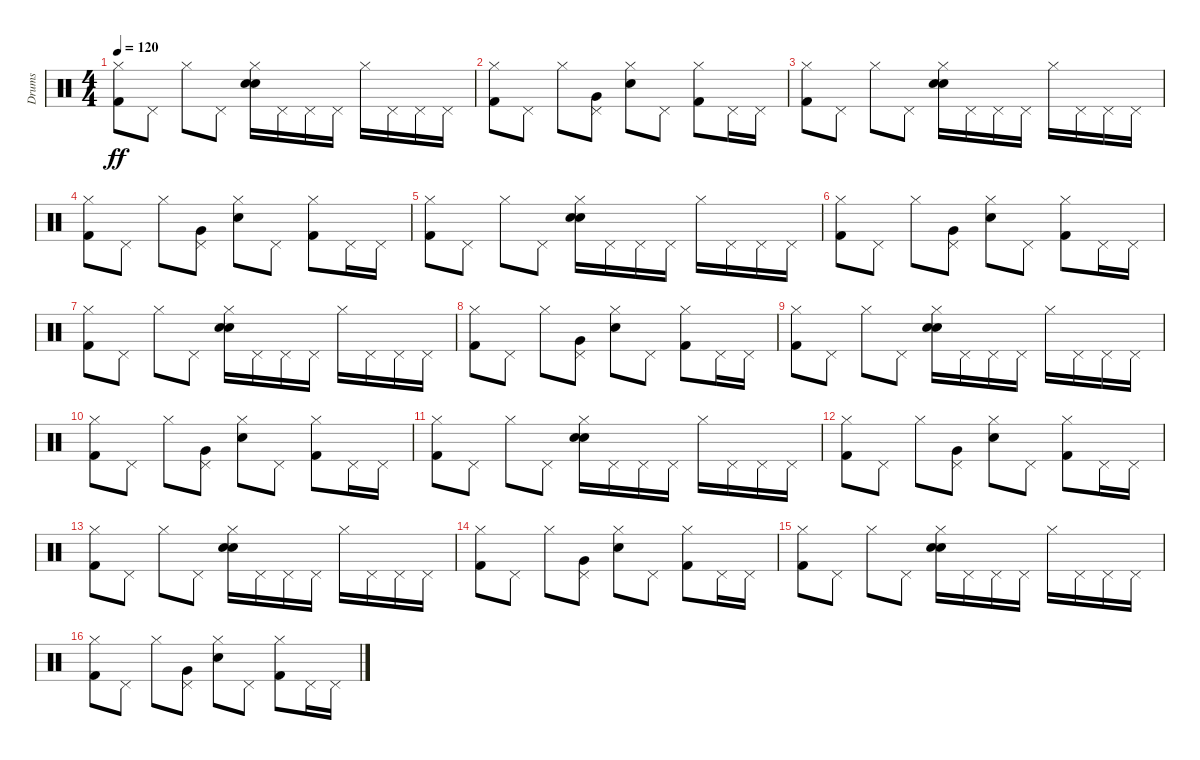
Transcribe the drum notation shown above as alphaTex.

\track ("Drums" "Drums") {instrument percussion}
\staff {score}
\articulation defaults
\ts (4 4)
\tempo 120
\clef neutral
\ks c
("Kick (hit) 2" "Hi-Hat (closed)").8{dy ff} "Pedal Hi-Hat (hit)".8 "Hi-Hat (closed)".8 "Pedal Hi-Hat (hit)".8 ("Electric Snare (hit)" "Electric Snare (hit)" "Hi-Hat (closed)").16 "Pedal Hi-Hat (hit)".16 "Pedal Hi-Hat (hit)".16 "Pedal Hi-Hat (hit)".16 "Hi-Hat (closed)".16 "Pedal Hi-Hat (hit)".16 "Pedal Hi-Hat (hit)".16 "Pedal Hi-Hat (hit)".16 |
("Kick (hit) 2" "Hi-Hat (closed)").8 "Pedal Hi-Hat (hit)".8 "Hi-Hat (closed)".8 ("Very Low Tom (hit)" "Pedal Hi-Hat (hit)").8 ("Electric Snare (hit)" "Hi-Hat (closed)").8 "Pedal Hi-Hat (hit)".8 ("Kick (hit) 2" "Hi-Hat (closed)").8 "Pedal Hi-Hat (hit)".16 "Pedal Hi-Hat (hit)".16 |
("Kick (hit) 2" "Hi-Hat (closed)").8 "Pedal Hi-Hat (hit)".8 "Hi-Hat (closed)".8 "Pedal Hi-Hat (hit)".8 ("Electric Snare (hit)" "Electric Snare (hit)" "Hi-Hat (closed)").16 "Pedal Hi-Hat (hit)".16 "Pedal Hi-Hat (hit)".16 "Pedal Hi-Hat (hit)".16 "Hi-Hat (closed)".16 "Pedal Hi-Hat (hit)".16 "Pedal Hi-Hat (hit)".16 "Pedal Hi-Hat (hit)".16 |
("Kick (hit) 2" "Hi-Hat (closed)").8 "Pedal Hi-Hat (hit)".8 "Hi-Hat (closed)".8 ("Very Low Tom (hit)" "Pedal Hi-Hat (hit)").8 ("Electric Snare (hit)" "Hi-Hat (closed)").8 "Pedal Hi-Hat (hit)".8 ("Kick (hit) 2" "Hi-Hat (closed)").8 "Pedal Hi-Hat (hit)".16 "Pedal Hi-Hat (hit)".16 |
("Kick (hit) 2" "Hi-Hat (closed)").8 "Pedal Hi-Hat (hit)".8 "Hi-Hat (closed)".8 "Pedal Hi-Hat (hit)".8 ("Electric Snare (hit)" "Electric Snare (hit)" "Hi-Hat (closed)").16 "Pedal Hi-Hat (hit)".16 "Pedal Hi-Hat (hit)".16 "Pedal Hi-Hat (hit)".16 "Hi-Hat (closed)".16 "Pedal Hi-Hat (hit)".16 "Pedal Hi-Hat (hit)".16 "Pedal Hi-Hat (hit)".16 |
("Kick (hit) 2" "Hi-Hat (closed)").8 "Pedal Hi-Hat (hit)".8 "Hi-Hat (closed)".8 ("Very Low Tom (hit)" "Pedal Hi-Hat (hit)").8 ("Electric Snare (hit)" "Hi-Hat (closed)").8 "Pedal Hi-Hat (hit)".8 ("Kick (hit) 2" "Hi-Hat (closed)").8 "Pedal Hi-Hat (hit)".16 "Pedal Hi-Hat (hit)".16 |
("Kick (hit) 2" "Hi-Hat (closed)").8 "Pedal Hi-Hat (hit)".8 "Hi-Hat (closed)".8 "Pedal Hi-Hat (hit)".8 ("Electric Snare (hit)" "Electric Snare (hit)" "Hi-Hat (closed)").16 "Pedal Hi-Hat (hit)".16 "Pedal Hi-Hat (hit)".16 "Pedal Hi-Hat (hit)".16 "Hi-Hat (closed)".16 "Pedal Hi-Hat (hit)".16 "Pedal Hi-Hat (hit)".16 "Pedal Hi-Hat (hit)".16 |
("Kick (hit) 2" "Hi-Hat (closed)").8 "Pedal Hi-Hat (hit)".8 "Hi-Hat (closed)".8 ("Very Low Tom (hit)" "Pedal Hi-Hat (hit)").8 ("Electric Snare (hit)" "Hi-Hat (closed)").8 "Pedal Hi-Hat (hit)".8 ("Kick (hit) 2" "Hi-Hat (closed)").8 "Pedal Hi-Hat (hit)".16 "Pedal Hi-Hat (hit)".16 |
("Kick (hit) 2" "Hi-Hat (closed)").8 "Pedal Hi-Hat (hit)".8 "Hi-Hat (closed)".8 "Pedal Hi-Hat (hit)".8 ("Electric Snare (hit)" "Electric Snare (hit)" "Hi-Hat (closed)").16 "Pedal Hi-Hat (hit)".16 "Pedal Hi-Hat (hit)".16 "Pedal Hi-Hat (hit)".16 "Hi-Hat (closed)".16 "Pedal Hi-Hat (hit)".16 "Pedal Hi-Hat (hit)".16 "Pedal Hi-Hat (hit)".16 |
("Kick (hit) 2" "Hi-Hat (closed)").8 "Pedal Hi-Hat (hit)".8 "Hi-Hat (closed)".8 ("Very Low Tom (hit)" "Pedal Hi-Hat (hit)").8 ("Electric Snare (hit)" "Hi-Hat (closed)").8 "Pedal Hi-Hat (hit)".8 ("Kick (hit) 2" "Hi-Hat (closed)").8 "Pedal Hi-Hat (hit)".16 "Pedal Hi-Hat (hit)".16 |
("Kick (hit) 2" "Hi-Hat (closed)").8 "Pedal Hi-Hat (hit)".8 "Hi-Hat (closed)".8 "Pedal Hi-Hat (hit)".8 ("Electric Snare (hit)" "Electric Snare (hit)" "Hi-Hat (closed)").16 "Pedal Hi-Hat (hit)".16 "Pedal Hi-Hat (hit)".16 "Pedal Hi-Hat (hit)".16 "Hi-Hat (closed)".16 "Pedal Hi-Hat (hit)".16 "Pedal Hi-Hat (hit)".16 "Pedal Hi-Hat (hit)".16 |
("Kick (hit) 2" "Hi-Hat (closed)").8 "Pedal Hi-Hat (hit)".8 "Hi-Hat (closed)".8 ("Very Low Tom (hit)" "Pedal Hi-Hat (hit)").8 ("Electric Snare (hit)" "Hi-Hat (closed)").8 "Pedal Hi-Hat (hit)".8 ("Kick (hit) 2" "Hi-Hat (closed)").8 "Pedal Hi-Hat (hit)".16 "Pedal Hi-Hat (hit)".16 |
("Kick (hit) 2" "Hi-Hat (closed)").8 "Pedal Hi-Hat (hit)".8 "Hi-Hat (closed)".8 "Pedal Hi-Hat (hit)".8 ("Electric Snare (hit)" "Electric Snare (hit)" "Hi-Hat (closed)").16 "Pedal Hi-Hat (hit)".16 "Pedal Hi-Hat (hit)".16 "Pedal Hi-Hat (hit)".16 "Hi-Hat (closed)".16 "Pedal Hi-Hat (hit)".16 "Pedal Hi-Hat (hit)".16 "Pedal Hi-Hat (hit)".16 |
("Kick (hit) 2" "Hi-Hat (closed)").8 "Pedal Hi-Hat (hit)".8 "Hi-Hat (closed)".8 ("Very Low Tom (hit)" "Pedal Hi-Hat (hit)").8 ("Electric Snare (hit)" "Hi-Hat (closed)").8 "Pedal Hi-Hat (hit)".8 ("Kick (hit) 2" "Hi-Hat (closed)").8 "Pedal Hi-Hat (hit)".16 "Pedal Hi-Hat (hit)".16 |
("Kick (hit) 2" "Hi-Hat (closed)").8 "Pedal Hi-Hat (hit)".8 "Hi-Hat (closed)".8 "Pedal Hi-Hat (hit)".8 ("Electric Snare (hit)" "Electric Snare (hit)" "Hi-Hat (closed)").16 "Pedal Hi-Hat (hit)".16 "Pedal Hi-Hat (hit)".16 "Pedal Hi-Hat (hit)".16 "Hi-Hat (closed)".16 "Pedal Hi-Hat (hit)".16 "Pedal Hi-Hat (hit)".16 "Pedal Hi-Hat (hit)".16 |
("Kick (hit) 2" "Hi-Hat (closed)").8 "Pedal Hi-Hat (hit)".8 "Hi-Hat (closed)".8 ("Very Low Tom (hit)" "Pedal Hi-Hat (hit)").8 ("Electric Snare (hit)" "Hi-Hat (closed)").8 "Pedal Hi-Hat (hit)".8 ("Kick (hit) 2" "Hi-Hat (closed)").8 "Pedal Hi-Hat (hit)".16 "Pedal Hi-Hat (hit)".16
